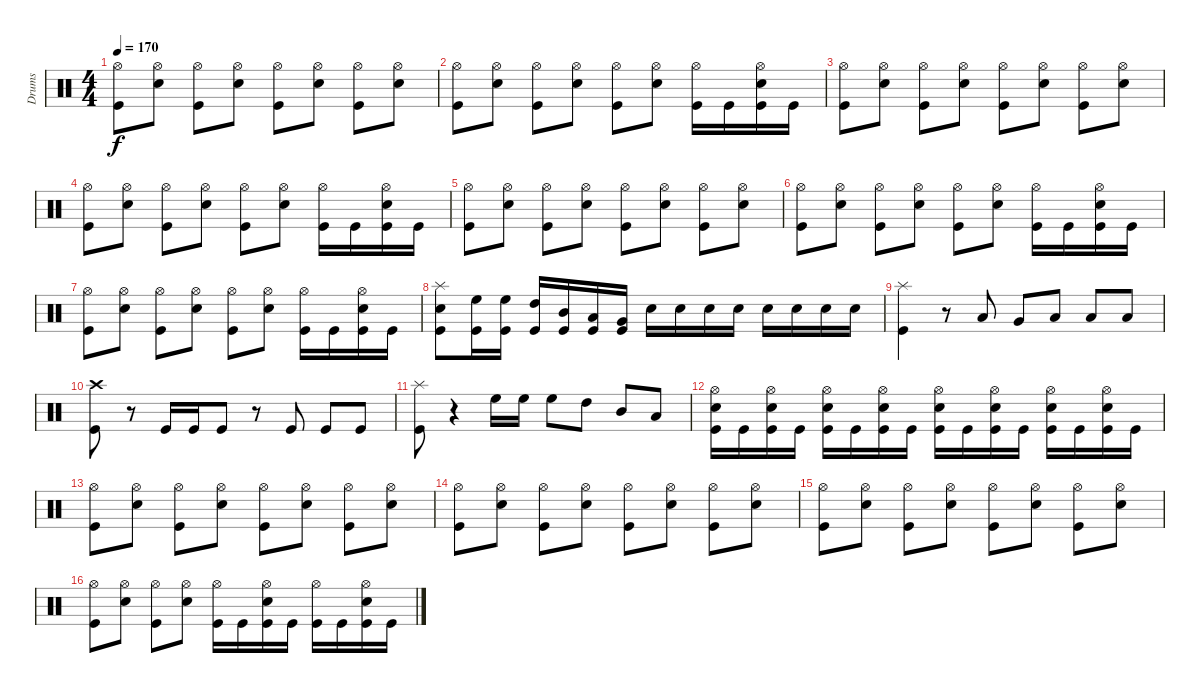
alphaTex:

\track ("Drums" "Drums") {instrument percussion}
\staff {score}
\articulation defaults
\ts (4 4)
\tempo 170
\clef neutral
\ks c
("Hi-Hat (open)" "Kick (hit)").8{dy f} ("Hi-Hat (open)" "Snare (hit) 2").8 ("Hi-Hat (open)" "Kick (hit)").8 ("Hi-Hat (open)" "Snare (hit) 2").8 ("Hi-Hat (open)" "Kick (hit)").8 ("Hi-Hat (open)" "Snare (hit) 2").8 ("Hi-Hat (open)" "Kick (hit)").8 ("Hi-Hat (open)" "Snare (hit) 2").8 |
("Hi-Hat (open)" "Kick (hit)").8 ("Hi-Hat (open)" "Snare (hit) 2").8 ("Hi-Hat (open)" "Kick (hit)").8 ("Hi-Hat (open)" "Snare (hit) 2").8 ("Hi-Hat (open)" "Kick (hit)").8 ("Hi-Hat (open)" "Snare (hit) 2").8 ("Hi-Hat (open)" "Kick (hit)").16 "Kick (hit)".16 ("Hi-Hat (open)" "Snare (hit) 2" "Kick (hit)").16 "Kick (hit)".16 |
("Hi-Hat (open)" "Kick (hit)").8 ("Hi-Hat (open)" "Snare (hit) 2").8 ("Hi-Hat (open)" "Kick (hit)").8 ("Hi-Hat (open)" "Snare (hit) 2").8 ("Hi-Hat (open)" "Kick (hit)").8 ("Hi-Hat (open)" "Snare (hit) 2").8 ("Hi-Hat (open)" "Kick (hit)").8 ("Hi-Hat (open)" "Snare (hit) 2").8 |
("Hi-Hat (open)" "Kick (hit)").8 ("Hi-Hat (open)" "Snare (hit) 2").8 ("Hi-Hat (open)" "Kick (hit)").8 ("Hi-Hat (open)" "Snare (hit) 2").8 ("Hi-Hat (open)" "Kick (hit)").8 ("Hi-Hat (open)" "Snare (hit) 2").8 ("Hi-Hat (open)" "Kick (hit)").16 "Kick (hit)".16 ("Hi-Hat (open)" "Snare (hit) 2" "Kick (hit)").16 "Kick (hit)".16 |
("Hi-Hat (open)" "Kick (hit)").8 ("Hi-Hat (open)" "Snare (hit) 2").8 ("Hi-Hat (open)" "Kick (hit)").8 ("Hi-Hat (open)" "Snare (hit) 2").8 ("Hi-Hat (open)" "Kick (hit)").8 ("Hi-Hat (open)" "Snare (hit) 2").8 ("Hi-Hat (open)" "Kick (hit)").8 ("Hi-Hat (open)" "Snare (hit) 2").8 |
("Hi-Hat (open)" "Kick (hit)").8 ("Hi-Hat (open)" "Snare (hit) 2").8 ("Hi-Hat (open)" "Kick (hit)").8 ("Hi-Hat (open)" "Snare (hit) 2").8 ("Hi-Hat (open)" "Kick (hit)").8 ("Hi-Hat (open)" "Snare (hit) 2").8 ("Hi-Hat (open)" "Kick (hit)").16 "Kick (hit)".16 ("Hi-Hat (open)" "Snare (hit) 2" "Kick (hit)").16 "Kick (hit)".16 |
("Hi-Hat (open)" "Kick (hit)").8 ("Hi-Hat (open)" "Snare (hit) 2").8 ("Hi-Hat (open)" "Kick (hit)").8 ("Hi-Hat (open)" "Snare (hit) 2").8 ("Hi-Hat (open)" "Kick (hit)").8 ("Hi-Hat (open)" "Snare (hit) 2").8 ("Hi-Hat (open)" "Kick (hit)").16 "Kick (hit)".16 ("Hi-Hat (open)" "Snare (hit) 2" "Kick (hit)").16 "Kick (hit)".16 |
("Splash (hit)" "Snare (hit) 2" "Kick (hit)").8 ("High Floor Tom (hit)" "Kick (hit)").16 ("High Floor Tom (hit)" "Kick (hit)").16 ("High Tom (hit)" "Kick (hit)").16 ("Mid Tom (hit)" "Kick (hit)").16 ("Low Tom (hit)" "Kick (hit)").16 ("Very Low Tom (hit)" "Kick (hit)").16 "Snare (hit) 2".16 "Snare (hit) 2".16 "Snare (hit) 2".16 "Snare (hit) 2".16 "Snare (hit) 2".16 "Snare (hit) 2".16 "Snare (hit) 2".16 "Snare (hit) 2".16 |
("Splash (hit)" "Kick (hit)").4 r.8 "Low Tom (hit)".8 "Very Low Tom (hit)".8 "Low Floor Tom (hit)".8 "Low Floor Tom (hit)".8 "Low Floor Tom (hit)".8 |
("Crash high (hit)" "Kick (hit)").8 r.8 "Kick (hit)".16 "Kick (hit)".16 "Kick (hit)".8 r.8 "Kick (hit)".8 "Kick (hit)".8 "Kick (hit)".8 |
("Splash (hit)" "Kick (hit)").8 r.4 "High Floor Tom (hit)".16 "High Floor Tom (hit)".16 "High Floor Tom (hit)".8 "High Tom (hit)".8 "Mid Tom (hit)".8 "Low Tom (hit)".8 |
("Hi-Hat (open)" "Snare (hit) 2" "Kick (hit)").16 "Kick (hit)".16 ("Hi-Hat (open)" "Snare (hit) 2" "Kick (hit)").16 "Kick (hit)".16 ("Hi-Hat (open)" "Snare (hit) 2" "Kick (hit)").16 "Kick (hit)".16 ("Hi-Hat (open)" "Snare (hit) 2" "Kick (hit)").16 "Kick (hit)".16 ("Hi-Hat (open)" "Snare (hit) 2" "Kick (hit)").16 "Kick (hit)".16 ("Hi-Hat (open)" "Snare (hit) 2" "Kick (hit)").16 "Kick (hit)".16 ("Hi-Hat (open)" "Snare (hit) 2" "Kick (hit)").16 "Kick (hit)".16 ("Hi-Hat (open)" "Snare (hit) 2" "Kick (hit)").16 "Kick (hit)".16 |
("Hi-Hat (open)" "Kick (hit)").8 ("Hi-Hat (open)" "Snare (hit) 2").8 ("Hi-Hat (open)" "Kick (hit)").8 ("Hi-Hat (open)" "Snare (hit) 2").8 ("Hi-Hat (open)" "Kick (hit)").8 ("Hi-Hat (open)" "Snare (hit) 2").8 ("Hi-Hat (open)" "Kick (hit)").8 ("Hi-Hat (open)" "Snare (hit) 2").8 |
("Hi-Hat (open)" "Kick (hit)").8 ("Hi-Hat (open)" "Snare (hit) 2").8 ("Hi-Hat (open)" "Kick (hit)").8 ("Hi-Hat (open)" "Snare (hit) 2").8 ("Hi-Hat (open)" "Kick (hit)").8 ("Hi-Hat (open)" "Snare (hit) 2").8 ("Hi-Hat (open)" "Kick (hit)").8 ("Hi-Hat (open)" "Snare (hit) 2").8 |
("Hi-Hat (open)" "Kick (hit)").8 ("Hi-Hat (open)" "Snare (hit) 2").8 ("Hi-Hat (open)" "Kick (hit)").8 ("Hi-Hat (open)" "Snare (hit) 2").8 ("Hi-Hat (open)" "Kick (hit)").8 ("Hi-Hat (open)" "Snare (hit) 2").8 ("Hi-Hat (open)" "Kick (hit)").8 ("Hi-Hat (open)" "Snare (hit) 2").8 |
("Hi-Hat (open)" "Kick (hit)").8 ("Hi-Hat (open)" "Snare (hit) 2").8 ("Hi-Hat (open)" "Kick (hit)").8 ("Hi-Hat (open)" "Snare (hit) 2").8 ("Hi-Hat (open)" "Kick (hit)").16 "Kick (hit)".16 ("Hi-Hat (open)" "Snare (hit) 2" "Kick (hit)").16 "Kick (hit)".16 ("Hi-Hat (open)" "Kick (hit)").16 "Kick (hit)".16 ("Hi-Hat (open)" "Snare (hit) 2" "Kick (hit)").16 "Kick (hit)".16
